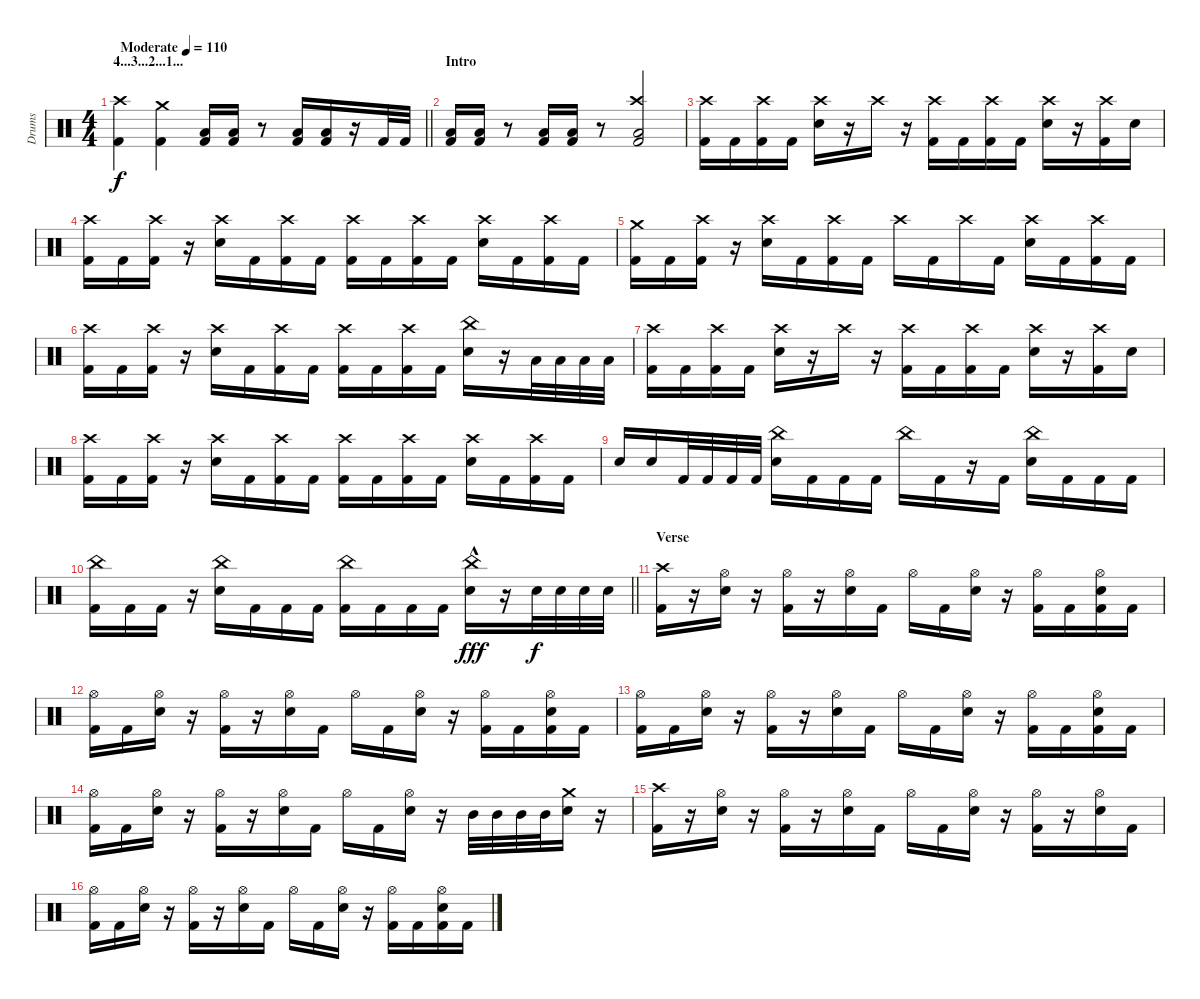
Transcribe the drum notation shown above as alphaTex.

\track ("Drums" "Drums") {instrument percussion}
\staff {score}
\articulation defaults
\ts (4 4)
\section ("" "4...3...2...1...")
\tempo (110 "Moderate")
\clef neutral
\barLineRight lightlight
\ks c
("Kick (hit) 2" "Crash high (hit)").4{dy f} ("Kick (hit) 2" "Crash medium (hit)").4 ("Low Tom (hit)" "Kick (hit) 2").16 ("Low Tom (hit)" "Kick (hit) 2").16 r.8 ("Low Tom (hit)" "Kick (hit) 2").16 ("Low Tom (hit)" "Kick (hit) 2").16 r.16 "Kick (hit) 2".32 "Kick (hit) 2".32 |
\section ("" "Intro")
("Low Tom (hit)" "Kick (hit) 2").16 ("Low Tom (hit)" "Kick (hit) 2").16 r.8 ("Low Tom (hit)" "Kick (hit) 2").16 ("Low Tom (hit)" "Kick (hit) 2").16 r.8 ("Low Tom (hit)" "Kick (hit) 2" "Crash high (hit)").2 |
("Kick (hit) 2" "Crash high (hit)").16 "Kick (hit) 2".16 ("Kick (hit) 2" "Crash high (hit)").16 "Kick (hit) 2".16 ("Crash high (hit)" "Electric Snare (hit)").16 r.16 "Crash high (hit)".16 r.16 ("Kick (hit) 2" "Crash high (hit)").16 "Kick (hit) 2".16 ("Kick (hit) 2" "Crash high (hit)").16 "Kick (hit) 2".16 ("Crash high (hit)" "Electric Snare (hit)").16 r.16 ("Kick (hit) 2" "Crash high (hit)").16 "Electric Snare (hit)".16 |
("Kick (hit) 2" "Crash high (hit)").16 "Kick (hit) 2".16 ("Kick (hit) 2" "Crash high (hit)").16 r.16 ("Crash high (hit)" "Electric Snare (hit)").16 "Kick (hit) 2".16 ("Kick (hit) 2" "Crash high (hit)").16 "Kick (hit) 2".16 ("Kick (hit) 2" "Crash high (hit)").16 "Kick (hit) 2".16 ("Kick (hit) 2" "Crash high (hit)").16 "Kick (hit) 2".16 ("Crash high (hit)" "Electric Snare (hit)").16 "Kick (hit) 2".16 ("Kick (hit) 2" "Crash high (hit)").16 "Kick (hit) 2".16 |
("Kick (hit) 2" "Crash medium (hit)").16 "Kick (hit) 2".16 ("Kick (hit) 2" "Crash high (hit)").16 r.16 ("Crash high (hit)" "Electric Snare (hit)").16 "Kick (hit) 2".16 ("Kick (hit) 2" "Crash high (hit)").16 "Kick (hit) 2".16 "Crash high (hit)".16 "Kick (hit) 2".16 "Crash high (hit)".16 "Kick (hit) 2".16 ("Crash high (hit)" "Electric Snare (hit)").16 "Kick (hit) 2".16 ("Kick (hit) 2" "Crash high (hit)").16 "Kick (hit) 2".16 |
("Kick (hit) 2" "Crash high (hit)").16 "Kick (hit) 2".16 ("Kick (hit) 2" "Crash high (hit)").16 r.16 ("Crash high (hit)" "Electric Snare (hit)").16 "Kick (hit) 2".16 ("Kick (hit) 2" "Crash high (hit)").16 "Kick (hit) 2".16 ("Kick (hit) 2" "Crash high (hit)").16 "Kick (hit) 2".16 ("Kick (hit) 2" "Crash high (hit)").16 "Kick (hit) 2".16 ("China (hit)" "Electric Snare (hit)").16 r.16 "Low Tom (hit)".32 "Low Tom (hit)".32 "Low Tom (hit)".32 "Low Tom (hit)".32 |
("Kick (hit) 2" "Crash high (hit)").16 "Kick (hit) 2".16 ("Kick (hit) 2" "Crash high (hit)").16 "Kick (hit) 2".16 ("Crash high (hit)" "Electric Snare (hit)").16 r.16 "Crash high (hit)".16 r.16 ("Kick (hit) 2" "Crash high (hit)").16 "Kick (hit) 2".16 ("Kick (hit) 2" "Crash high (hit)").16 "Kick (hit) 2".16 ("Crash high (hit)" "Electric Snare (hit)").16 r.16 ("Kick (hit) 2" "Crash high (hit)").16 "Electric Snare (hit)".16 |
("Kick (hit) 2" "Crash high (hit)").16 "Kick (hit) 2".16 ("Kick (hit) 2" "Crash high (hit)").16 r.16 ("Crash high (hit)" "Electric Snare (hit)").16 "Kick (hit) 2".16 ("Kick (hit) 2" "Crash high (hit)").16 "Kick (hit) 2".16 ("Kick (hit) 2" "Crash high (hit)").16 "Kick (hit) 2".16 ("Kick (hit) 2" "Crash high (hit)").16 "Kick (hit) 2".16 ("Crash high (hit)" "Electric Snare (hit)").16 "Kick (hit) 2".16 ("Kick (hit) 2" "Crash high (hit)").16 "Kick (hit) 2".16 |
"Electric Snare (hit)".16 "Electric Snare (hit)".16 "Kick (hit) 2".32 "Kick (hit) 2".32 "Kick (hit) 2".32 "Kick (hit) 2".32 ("Electric Snare (hit)" "China (hit)").16 "Kick (hit) 2".16 "Kick (hit) 2".16 "Kick (hit) 2".16 "China (hit)".16 "Kick (hit) 2".16 r.16 "Kick (hit) 2".16 ("Electric Snare (hit)" "China (hit)").16 "Kick (hit) 2".16 "Kick (hit) 2".16 "Kick (hit) 2".16 |
\barLineRight lightlight
("Kick (hit) 2" "China (hit)").16 "Kick (hit) 2".16 "Kick (hit) 2".16 r.16 ("China (hit)" "Electric Snare (hit)").16 "Kick (hit) 2".16 "Kick (hit) 2".16 "Kick (hit) 2".16 ("Kick (hit) 2" "China (hit)").16 "Kick (hit) 2".16 "Kick (hit) 2".16 "Kick (hit) 2".16 ("China (hit)"{hac} "Electric Snare (hit)").16{dy fff} r.16 "Electric Snare (hit)".32{dy f} "Electric Snare (hit)".32 "Electric Snare (hit)".32 "Electric Snare (hit)".32 |
\section ("" "Verse")
("Kick (hit) 2" "Crash high (hit)").16 r.16 ("Hi-Hat (open)" "Electric Snare (hit)").16 r.16 ("Kick (hit) 2" "Hi-Hat (open)").16 r.16 ("Electric Snare (hit)" "Hi-Hat (open)").16 "Kick (hit) 2".16 "Hi-Hat (open)".16 "Kick (hit) 2".16 ("Electric Snare (hit)" "Hi-Hat (open)").16 r.16 ("Kick (hit) 2" "Hi-Hat (open)").16 "Kick (hit) 2".16 ("Kick (hit) 2" "Electric Snare (hit)" "Hi-Hat (open)").16 "Kick (hit) 2".16 |
("Kick (hit) 2" "Hi-Hat (open)").16 "Kick (hit) 2".16 ("Hi-Hat (open)" "Electric Snare (hit)").16 r.16 ("Kick (hit) 2" "Hi-Hat (open)").16 r.16 ("Electric Snare (hit)" "Hi-Hat (open)").16 "Kick (hit) 2".16 "Hi-Hat (open)".16 "Kick (hit) 2".16 ("Electric Snare (hit)" "Hi-Hat (open)").16 r.16 ("Kick (hit) 2" "Hi-Hat (open)").16 "Kick (hit) 2".16 ("Kick (hit) 2" "Electric Snare (hit)" "Hi-Hat (open)").16 "Kick (hit) 2".16 |
("Kick (hit) 2" "Hi-Hat (open)").16 "Kick (hit) 2".16 ("Hi-Hat (open)" "Electric Snare (hit)").16 r.16 ("Kick (hit) 2" "Hi-Hat (open)").16 r.16 ("Electric Snare (hit)" "Hi-Hat (open)").16 "Kick (hit) 2".16 "Hi-Hat (open)".16 "Kick (hit) 2".16 ("Electric Snare (hit)" "Hi-Hat (open)").16 r.16 ("Kick (hit) 2" "Hi-Hat (open)").16 "Kick (hit) 2".16 ("Kick (hit) 2" "Electric Snare (hit)" "Hi-Hat (open)").16 "Kick (hit) 2".16 |
("Kick (hit) 2" "Hi-Hat (open)").16 "Kick (hit) 2".16 ("Hi-Hat (open)" "Electric Snare (hit)").16 r.16 ("Kick (hit) 2" "Hi-Hat (open)").16 r.16 ("Electric Snare (hit)" "Hi-Hat (open)").16 "Kick (hit) 2".16 "Hi-Hat (open)".16 "Kick (hit) 2".16 ("Electric Snare (hit)" "Hi-Hat (open)").16 r.16 "Mid Tom (hit)".32 "Mid Tom (hit)".32 "Mid Tom (hit)".32 "Mid Tom (hit)".32 ("Crash medium (hit)" "Electric Snare (hit)").16 r.16 |
("Kick (hit) 2" "Crash high (hit)").16 r.16 ("Hi-Hat (open)" "Electric Snare (hit)").16 r.16 ("Kick (hit) 2" "Hi-Hat (open)").16 r.16 ("Electric Snare (hit)" "Hi-Hat (open)").16 "Kick (hit) 2".16 "Hi-Hat (open)".16 "Kick (hit) 2".16 ("Electric Snare (hit)" "Hi-Hat (open)").16 r.16 ("Kick (hit) 2" "Hi-Hat (open)").16 r.16 ("Electric Snare (hit)" "Hi-Hat (open)").16 "Kick (hit) 2".16 |
("Kick (hit) 2" "Hi-Hat (open)").16 "Kick (hit) 2".16 ("Hi-Hat (open)" "Electric Snare (hit)").16 r.16 ("Kick (hit) 2" "Hi-Hat (open)").16 r.16 ("Electric Snare (hit)" "Hi-Hat (open)").16 "Kick (hit) 2".16 "Hi-Hat (open)".16 "Kick (hit) 2".16 ("Electric Snare (hit)" "Hi-Hat (open)").16 r.16 ("Kick (hit) 2" "Hi-Hat (open)").16 "Kick (hit) 2".16 ("Kick (hit) 2" "Electric Snare (hit)" "Hi-Hat (open)").16 "Kick (hit) 2".16
